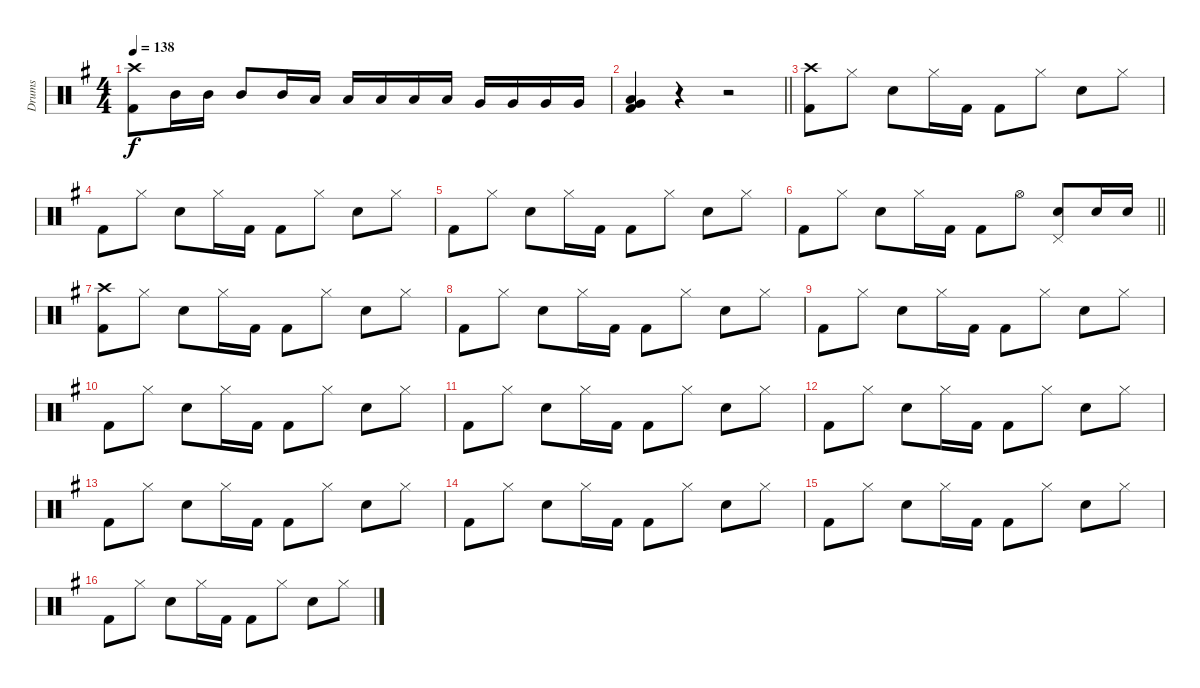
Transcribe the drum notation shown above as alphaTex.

\track ("Drums" "Drums") {instrument percussion}
\staff {score}
\articulation defaults
\ts (4 4)
\tempo 138
\clef neutral
\ks eminor
("Crash high (hit)" "Kick (hit) 2").8{dy f} "Mid Tom (hit)".16 "Mid Tom (hit)".16 "Mid Tom (hit)".8 "Mid Tom (hit)".16 "Low Tom (hit)".16 "Low Tom (hit)".16 "Low Tom (hit)".16 "Low Tom (hit)".16 "Low Tom (hit)".16 "Very Low Tom (hit)".16 "Very Low Tom (hit)".16 "Very Low Tom (hit)".16 "Very Low Tom (hit)".16 |
\barLineRight lightlight
\ks g
("Low Tom (hit)" "Very Low Tom (hit)" "Kick (hit) 2").4 r.4 r.2 |
\section ("" "")
("Crash high (hit)" "Kick (hit) 2").8 "Hi-Hat (closed)".8 "Electric Snare (hit)".8 "Hi-Hat (closed)".16 "Kick (hit) 2".16 "Kick (hit) 2".8 "Hi-Hat (closed)".8 "Electric Snare (hit)".8 "Hi-Hat (closed)".8 |
"Kick (hit) 2".8 "Hi-Hat (closed)".8 "Electric Snare (hit)".8 "Hi-Hat (closed)".16 "Kick (hit) 2".16 "Kick (hit) 2".8 "Hi-Hat (closed)".8 "Electric Snare (hit)".8 "Hi-Hat (closed)".8 |
"Kick (hit) 2".8 "Hi-Hat (closed)".8 "Electric Snare (hit)".8 "Hi-Hat (closed)".16 "Kick (hit) 2".16 "Kick (hit) 2".8 "Hi-Hat (closed)".8 "Electric Snare (hit)".8 "Hi-Hat (closed)".8 |
\barLineRight lightlight "Kick (hit) 2".8 "Hi-Hat (closed)".8 "Electric Snare (hit)".8 "Hi-Hat (closed)".16 "Kick (hit) 2".16 "Kick (hit) 2".8 "Hi-Hat (open)".8
("Electric Snare (hit)" "Pedal Hi-Hat (hit)").8 "Electric Snare (hit)".16 "Electric Snare (hit)".16 |
\section ("" "")
("Crash high (hit)" "Kick (hit) 2").8 "Hi-Hat (closed)".8 "Electric Snare (hit)".8 "Hi-Hat (closed)".16 "Kick (hit) 2".16 "Kick (hit) 2".8 "Hi-Hat (closed)".8 "Electric Snare (hit)".8 "Hi-Hat (closed)".8 |
"Kick (hit) 2".8 "Hi-Hat (closed)".8 "Electric Snare (hit)".8 "Hi-Hat (closed)".16 "Kick (hit) 2".16 "Kick (hit) 2".8 "Hi-Hat (closed)".8 "Electric Snare (hit)".8 "Hi-Hat (closed)".8 |
"Kick (hit) 2".8 "Hi-Hat (closed)".8 "Electric Snare (hit)".8 "Hi-Hat (closed)".16 "Kick (hit) 2".16 "Kick (hit) 2".8 "Hi-Hat (closed)".8 "Electric Snare (hit)".8 "Hi-Hat (closed)".8 |
"Kick (hit) 2".8 "Hi-Hat (closed)".8 "Electric Snare (hit)".8 "Hi-Hat (closed)".16 "Kick (hit) 2".16 "Kick (hit) 2".8 "Hi-Hat (closed)".8 "Electric Snare (hit)".8 "Hi-Hat (closed)".8 |
"Kick (hit) 2".8 "Hi-Hat (closed)".8 "Electric Snare (hit)".8 "Hi-Hat (closed)".16 "Kick (hit) 2".16 "Kick (hit) 2".8 "Hi-Hat (closed)".8 "Electric Snare (hit)".8 "Hi-Hat (closed)".8 |
"Kick (hit) 2".8 "Hi-Hat (closed)".8 "Electric Snare (hit)".8 "Hi-Hat (closed)".16 "Kick (hit) 2".16 "Kick (hit) 2".8 "Hi-Hat (closed)".8 "Electric Snare (hit)".8 "Hi-Hat (closed)".8 |
"Kick (hit) 2".8 "Hi-Hat (closed)".8 "Electric Snare (hit)".8 "Hi-Hat (closed)".16 "Kick (hit) 2".16 "Kick (hit) 2".8 "Hi-Hat (closed)".8 "Electric Snare (hit)".8 "Hi-Hat (closed)".8 |
"Kick (hit) 2".8 "Hi-Hat (closed)".8 "Electric Snare (hit)".8 "Hi-Hat (closed)".16 "Kick (hit) 2".16 "Kick (hit) 2".8 "Hi-Hat (closed)".8 "Electric Snare (hit)".8 "Hi-Hat (closed)".8 |
"Kick (hit) 2".8 "Hi-Hat (closed)".8 "Electric Snare (hit)".8 "Hi-Hat (closed)".16 "Kick (hit) 2".16 "Kick (hit) 2".8 "Hi-Hat (closed)".8 "Electric Snare (hit)".8 "Hi-Hat (closed)".8 |
"Kick (hit) 2".8 "Hi-Hat (closed)".8 "Electric Snare (hit)".8 "Hi-Hat (closed)".16 "Kick (hit) 2".16 "Kick (hit) 2".8 "Hi-Hat (closed)".8 "Electric Snare (hit)".8 "Hi-Hat (closed)".8
